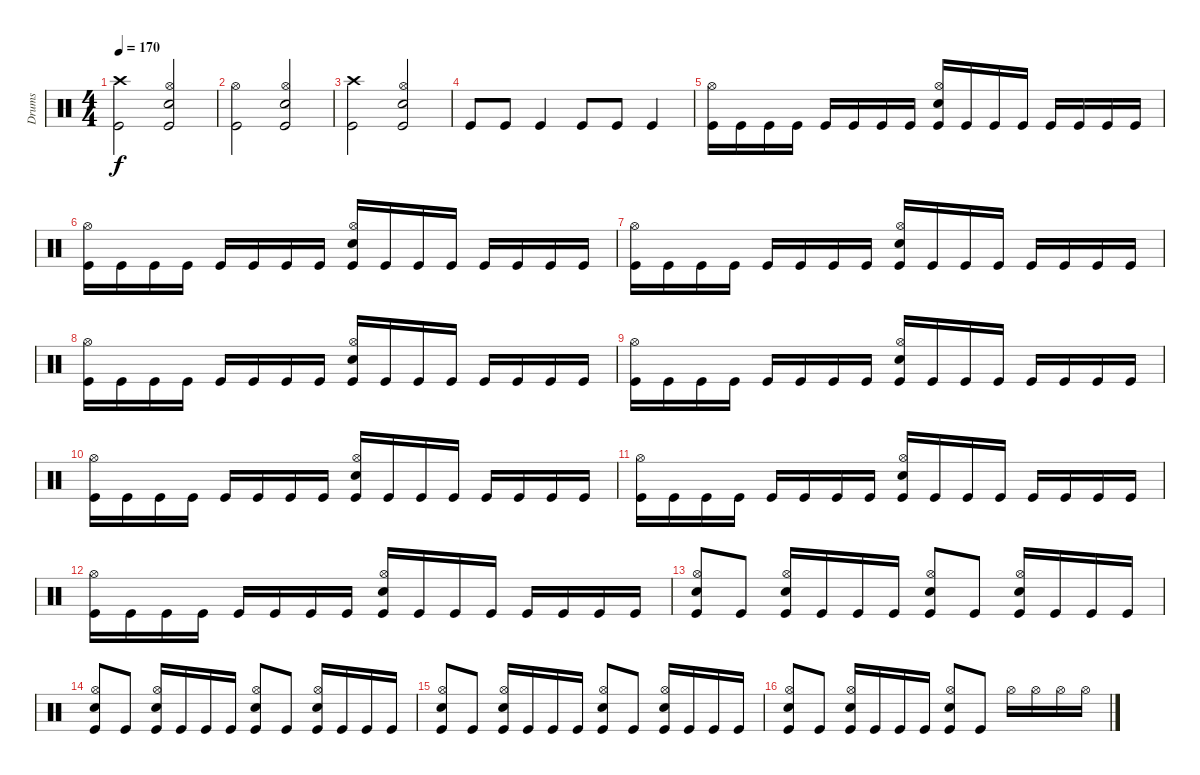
\track ("Drums" "Drums") {instrument percussion}
\staff {score}
\articulation defaults
\ts (4 4)
\tempo 170
\clef neutral
\ks c
("Crash high (hit)" "Kick (hit)").2{dy f} ("Hi-Hat (open)" "Snare (hit) 2" "Kick (hit)").2 |
("Hi-Hat (open)" "Kick (hit)").2 ("Hi-Hat (open)" "Snare (hit) 2" "Kick (hit)").2 |
("Crash high (hit)" "Kick (hit)").2 ("Hi-Hat (open)" "Snare (hit) 2" "Kick (hit)").2 |
"Kick (hit)".8 "Kick (hit)".8 "Kick (hit)".4 "Kick (hit)".8 "Kick (hit)".8 "Kick (hit)".4 |
("Hi-Hat (open)" "Kick (hit)").16 "Kick (hit)".16 "Kick (hit)".16 "Kick (hit)".16 "Kick (hit)".16 "Kick (hit)".16 "Kick (hit)".16 "Kick (hit)".16 ("Hi-Hat (open)" "Snare (hit) 2" "Kick (hit)").16 "Kick (hit)".16 "Kick (hit)".16 "Kick (hit)".16 "Kick (hit)".16 "Kick (hit)".16 "Kick (hit)".16 "Kick (hit)".16 |
("Hi-Hat (open)" "Kick (hit)").16 "Kick (hit)".16 "Kick (hit)".16 "Kick (hit)".16 "Kick (hit)".16 "Kick (hit)".16 "Kick (hit)".16 "Kick (hit)".16 ("Hi-Hat (open)" "Snare (hit) 2" "Kick (hit)").16 "Kick (hit)".16 "Kick (hit)".16 "Kick (hit)".16 "Kick (hit)".16 "Kick (hit)".16 "Kick (hit)".16 "Kick (hit)".16 |
("Hi-Hat (open)" "Kick (hit)").16 "Kick (hit)".16 "Kick (hit)".16 "Kick (hit)".16 "Kick (hit)".16 "Kick (hit)".16 "Kick (hit)".16 "Kick (hit)".16 ("Hi-Hat (open)" "Snare (hit) 2" "Kick (hit)").16 "Kick (hit)".16 "Kick (hit)".16 "Kick (hit)".16 "Kick (hit)".16 "Kick (hit)".16 "Kick (hit)".16 "Kick (hit)".16 |
("Hi-Hat (open)" "Kick (hit)").16 "Kick (hit)".16 "Kick (hit)".16 "Kick (hit)".16 "Kick (hit)".16 "Kick (hit)".16 "Kick (hit)".16 "Kick (hit)".16 ("Hi-Hat (open)" "Snare (hit) 2" "Kick (hit)").16 "Kick (hit)".16 "Kick (hit)".16 "Kick (hit)".16 "Kick (hit)".16 "Kick (hit)".16 "Kick (hit)".16 "Kick (hit)".16 |
("Hi-Hat (open)" "Kick (hit)").16 "Kick (hit)".16 "Kick (hit)".16 "Kick (hit)".16 "Kick (hit)".16 "Kick (hit)".16 "Kick (hit)".16 "Kick (hit)".16 ("Hi-Hat (open)" "Snare (hit) 2" "Kick (hit)").16 "Kick (hit)".16 "Kick (hit)".16 "Kick (hit)".16 "Kick (hit)".16 "Kick (hit)".16 "Kick (hit)".16 "Kick (hit)".16 |
("Hi-Hat (open)" "Kick (hit)").16 "Kick (hit)".16 "Kick (hit)".16 "Kick (hit)".16 "Kick (hit)".16 "Kick (hit)".16 "Kick (hit)".16 "Kick (hit)".16 ("Hi-Hat (open)" "Snare (hit) 2" "Kick (hit)").16 "Kick (hit)".16 "Kick (hit)".16 "Kick (hit)".16 "Kick (hit)".16 "Kick (hit)".16 "Kick (hit)".16 "Kick (hit)".16 |
("Hi-Hat (open)" "Kick (hit)").16 "Kick (hit)".16 "Kick (hit)".16 "Kick (hit)".16 "Kick (hit)".16 "Kick (hit)".16 "Kick (hit)".16 "Kick (hit)".16 ("Hi-Hat (open)" "Snare (hit) 2" "Kick (hit)").16 "Kick (hit)".16 "Kick (hit)".16 "Kick (hit)".16 "Kick (hit)".16 "Kick (hit)".16 "Kick (hit)".16 "Kick (hit)".16 |
("Hi-Hat (open)" "Kick (hit)").16 "Kick (hit)".16 "Kick (hit)".16 "Kick (hit)".16 "Kick (hit)".16 "Kick (hit)".16 "Kick (hit)".16 "Kick (hit)".16 ("Hi-Hat (open)" "Snare (hit) 2" "Kick (hit)").16 "Kick (hit)".16 "Kick (hit)".16 "Kick (hit)".16 "Kick (hit)".16 "Kick (hit)".16 "Kick (hit)".16 "Kick (hit)".16 |
("Hi-Hat (open)" "Snare (hit) 2" "Kick (hit)").8 "Kick (hit)".8 ("Hi-Hat (open)" "Snare (hit) 2" "Kick (hit)").16 "Kick (hit)".16 "Kick (hit)".16 "Kick (hit)".16 ("Hi-Hat (open)" "Snare (hit) 2" "Kick (hit)").8 "Kick (hit)".8 ("Hi-Hat (open)" "Snare (hit) 2" "Kick (hit)").16 "Kick (hit)".16 "Kick (hit)".16 "Kick (hit)".16 |
("Hi-Hat (open)" "Snare (hit) 2" "Kick (hit)").8 "Kick (hit)".8 ("Hi-Hat (open)" "Snare (hit) 2" "Kick (hit)").16 "Kick (hit)".16 "Kick (hit)".16 "Kick (hit)".16 ("Hi-Hat (open)" "Snare (hit) 2" "Kick (hit)").8 "Kick (hit)".8 ("Hi-Hat (open)" "Snare (hit) 2" "Kick (hit)").16 "Kick (hit)".16 "Kick (hit)".16 "Kick (hit)".16 |
("Hi-Hat (open)" "Snare (hit) 2" "Kick (hit)").8 "Kick (hit)".8 ("Hi-Hat (open)" "Snare (hit) 2" "Kick (hit)").16 "Kick (hit)".16 "Kick (hit)".16 "Kick (hit)".16 ("Hi-Hat (open)" "Snare (hit) 2" "Kick (hit)").8 "Kick (hit)".8 ("Hi-Hat (open)" "Snare (hit) 2" "Kick (hit)").16 "Kick (hit)".16 "Kick (hit)".16 "Kick (hit)".16 |
("Hi-Hat (open)" "Snare (hit) 2" "Kick (hit)").8 "Kick (hit)".8 ("Hi-Hat (open)" "Snare (hit) 2" "Kick (hit)").16 "Kick (hit)".16 "Kick (hit)".16 "Kick (hit)".16 ("Hi-Hat (open)" "Snare (hit) 2" "Kick (hit)").8 "Kick (hit)".8 "Hi-Hat (open)".16 "Hi-Hat (open)".16 "Hi-Hat (open)".16 "Hi-Hat (open)".16
